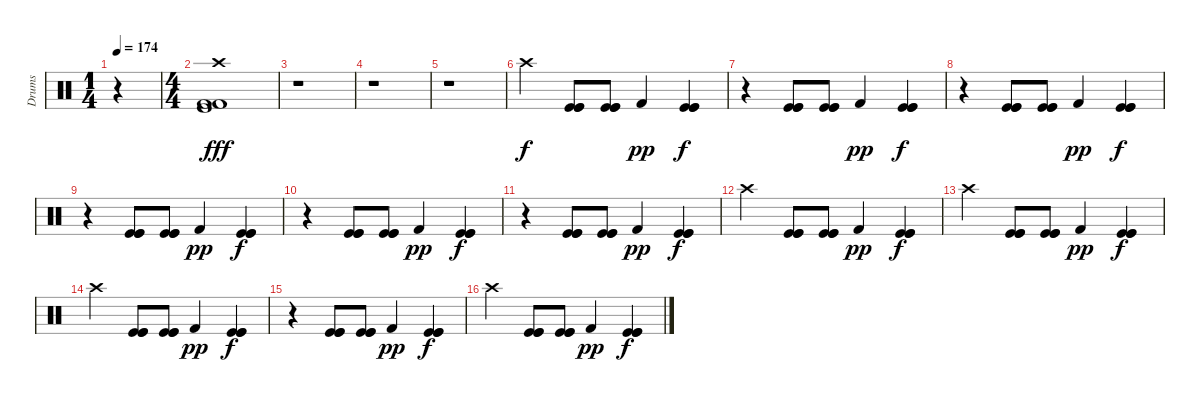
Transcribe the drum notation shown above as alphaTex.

\track ("Drums" "Drums") {instrument percussion}
\staff {score}
\articulation defaults
\ts (1 4)
\tempo 174
\clef neutral
\ks c
r.4{dy fff} |
\ts (4 4)
("Crash high (hit)" "Kick (hit) 2" "Kick (hit) 2" "Kick (hit)").1 |
r.1 |
r.1 |
r.1 |
"Crash high (hit)".4{dy f} ("Kick (hit)" "Kick (hit)" "Kick (hit)").8 ("Kick (hit)" "Kick (hit)" "Kick (hit)").8 "Kick (hit) 2".4{dy pp} ("Kick (hit)" "Kick (hit)" "Kick (hit)").4{dy f} |
r.4 ("Kick (hit)" "Kick (hit)" "Kick (hit)").8 ("Kick (hit)" "Kick (hit)" "Kick (hit)").8 "Kick (hit) 2".4{dy pp} ("Kick (hit)" "Kick (hit)" "Kick (hit)").4{dy f} |
r.4 ("Kick (hit)" "Kick (hit)" "Kick (hit)").8 ("Kick (hit)" "Kick (hit)" "Kick (hit)").8 "Kick (hit) 2".4{dy pp} ("Kick (hit)" "Kick (hit)" "Kick (hit)").4{dy f} |
r.4 ("Kick (hit)" "Kick (hit)" "Kick (hit)").8 ("Kick (hit)" "Kick (hit)" "Kick (hit)").8 "Kick (hit) 2".4{dy pp} ("Kick (hit)" "Kick (hit)" "Kick (hit)").4{dy f} |
r.4 ("Kick (hit)" "Kick (hit)" "Kick (hit)").8 ("Kick (hit)" "Kick (hit)" "Kick (hit)").8 "Kick (hit) 2".4{dy pp} ("Kick (hit)" "Kick (hit)" "Kick (hit)").4{dy f} |
r.4 ("Kick (hit)" "Kick (hit)" "Kick (hit)").8 ("Kick (hit)" "Kick (hit)" "Kick (hit)").8 "Kick (hit) 2".4{dy pp} ("Kick (hit)" "Kick (hit)" "Kick (hit)").4{dy f} |
"Crash high (hit)".4 ("Kick (hit)" "Kick (hit)" "Kick (hit)").8 ("Kick (hit)" "Kick (hit)" "Kick (hit)").8 "Kick (hit) 2".4{dy pp} ("Kick (hit)" "Kick (hit)" "Kick (hit)").4{dy f} |
"Crash high (hit)".4 ("Kick (hit)" "Kick (hit)" "Kick (hit)").8 ("Kick (hit)" "Kick (hit)" "Kick (hit)").8 "Kick (hit) 2".4{dy pp} ("Kick (hit)" "Kick (hit)" "Kick (hit)").4{dy f} |
"Crash high (hit)".4 ("Kick (hit)" "Kick (hit)" "Kick (hit)").8 ("Kick (hit)" "Kick (hit)" "Kick (hit)").8 "Kick (hit) 2".4{dy pp} ("Kick (hit)" "Kick (hit)" "Kick (hit)").4{dy f} |
r.4 ("Kick (hit)" "Kick (hit)" "Kick (hit)").8 ("Kick (hit)" "Kick (hit)" "Kick (hit)").8 "Kick (hit) 2".4{dy pp} ("Kick (hit)" "Kick (hit)" "Kick (hit)").4{dy f} |
"Crash high (hit)".4 ("Kick (hit)" "Kick (hit)" "Kick (hit)").8 ("Kick (hit)" "Kick (hit)" "Kick (hit)").8 "Kick (hit) 2".4{dy pp} ("Kick (hit)" "Kick (hit)" "Kick (hit)").4{dy f}
